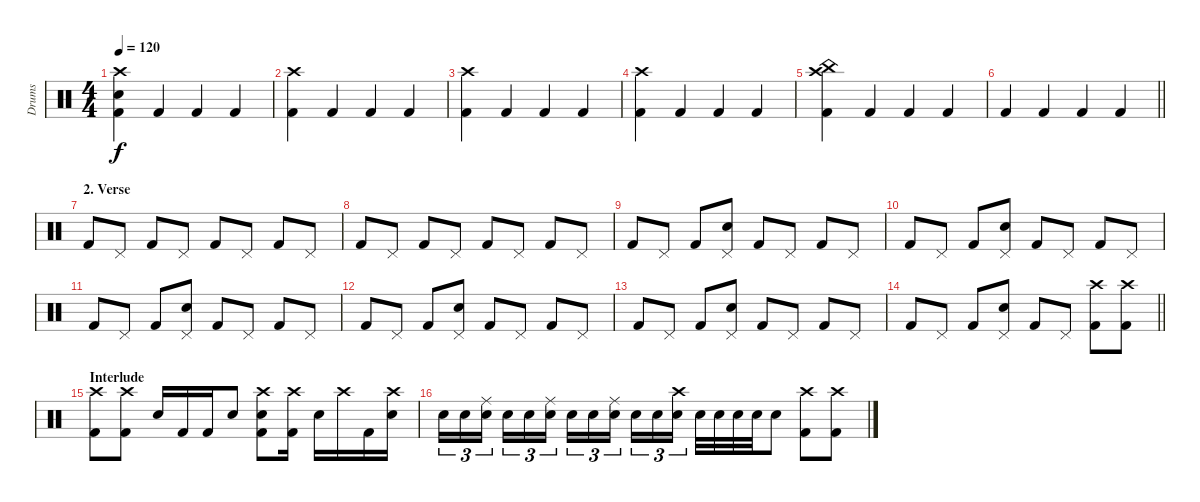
\track ("Drums" "Drums") {instrument percussion}
\staff {score}
\articulation defaults
\ts (4 4)
\tempo 120
\clef neutral
\ks c
("Crash high (hit)" "Snare (hit) 2" "Kick (hit) 2").4{dy f} "Kick (hit) 2".4 "Kick (hit) 2".4 "Kick (hit) 2".4 |
("Crash high (hit)" "Kick (hit) 2").4 "Kick (hit) 2".4 "Kick (hit) 2".4 "Kick (hit) 2".4 |
("Crash high (hit)" "Kick (hit) 2").4 "Kick (hit) 2".4 "Kick (hit) 2".4 "Kick (hit) 2".4 |
("Crash high (hit)" "Kick (hit) 2").4 "Kick (hit) 2".4 "Kick (hit) 2".4 "Kick (hit) 2".4 |
("Crash high (hit)" "China (hit)" "Kick (hit) 2").4 "Kick (hit) 2".4 "Kick (hit) 2".4 "Kick (hit) 2".4 |
\barLineRight lightlight "Kick (hit) 2".4 "Kick (hit) 2".4 "Kick (hit) 2".4 "Kick (hit) 2".4
|
\section ("" "2. Verse")
"Kick (hit) 2".8 "Pedal Hi-Hat (hit)".8 "Kick (hit) 2".8 "Pedal Hi-Hat (hit)".8 "Kick (hit) 2".8 "Pedal Hi-Hat (hit)".8 "Kick (hit) 2".8 "Pedal Hi-Hat (hit)".8 |
"Kick (hit) 2".8 "Pedal Hi-Hat (hit)".8 "Kick (hit) 2".8 "Pedal Hi-Hat (hit)".8 "Kick (hit) 2".8 "Pedal Hi-Hat (hit)".8 "Kick (hit) 2".8 "Pedal Hi-Hat (hit)".8 |
"Kick (hit) 2".8 "Pedal Hi-Hat (hit)".8 "Kick (hit) 2".8 ("Pedal Hi-Hat (hit)" "Snare (hit) 2").8 "Kick (hit) 2".8 "Pedal Hi-Hat (hit)".8 "Kick (hit) 2".8 "Pedal Hi-Hat (hit)".8 |
"Kick (hit) 2".8 "Pedal Hi-Hat (hit)".8 "Kick (hit) 2".8 ("Pedal Hi-Hat (hit)" "Snare (hit) 2").8 "Kick (hit) 2".8 "Pedal Hi-Hat (hit)".8 "Kick (hit) 2".8 "Pedal Hi-Hat (hit)".8 |
"Kick (hit) 2".8 "Pedal Hi-Hat (hit)".8 "Kick (hit) 2".8 ("Pedal Hi-Hat (hit)" "Snare (hit) 2").8 "Kick (hit) 2".8 "Pedal Hi-Hat (hit)".8 "Kick (hit) 2".8 "Pedal Hi-Hat (hit)".8 |
"Kick (hit) 2".8 "Pedal Hi-Hat (hit)".8 "Kick (hit) 2".8 ("Pedal Hi-Hat (hit)" "Snare (hit) 2").8 "Kick (hit) 2".8 "Pedal Hi-Hat (hit)".8 "Kick (hit) 2".8 "Pedal Hi-Hat (hit)".8 |
"Kick (hit) 2".8 "Pedal Hi-Hat (hit)".8 "Kick (hit) 2".8 ("Pedal Hi-Hat (hit)" "Snare (hit) 2").8 "Kick (hit) 2".8 "Pedal Hi-Hat (hit)".8 "Kick (hit) 2".8 "Pedal Hi-Hat (hit)".8 |
\barLineRight lightlight "Kick (hit) 2".8 "Pedal Hi-Hat (hit)".8 "Kick (hit) 2".8
("Pedal Hi-Hat (hit)" "Snare (hit) 2").8 "Kick (hit) 2".8 "Pedal Hi-Hat (hit)".8 ("Crash high (hit)" "Kick (hit) 2").8 ("Crash high (hit)" "Kick (hit) 2").8 |
\section ("" "Interlude")
("Crash high (hit)" "Kick (hit) 2").8 ("Crash high (hit)" "Kick (hit) 2").8 "Snare (hit) 2".16 "Kick (hit) 2".16 "Kick (hit) 2".16 "Snare (hit) 2".8 ("Crash high (hit)" "Snare (hit) 2" "Kick (hit) 2").8 ("Crash high (hit)" "Kick (hit) 2").16 "Snare (hit) 2".16 "Crash high (hit)".16 "Kick (hit) 2".16 ("Crash high (hit)" "Snare (hit) 2").16 |
"Snare (hit) 2".16{tu (3 2)} "Snare (hit) 2".16{tu (3 2)} ("Ride (middle)" "Snare (hit) 2").16{tu (3 2) beam splitsecondary} "Snare (hit) 2".16{tu (3 2)} "Snare (hit) 2".16{tu (3 2)} ("Ride (middle)" "Snare (hit) 2").16{tu (3 2)} "Snare (hit) 2".16{tu (3 2)} "Snare (hit) 2".16{tu (3 2)} ("Ride (middle)" "Snare (hit) 2").16{tu (3 2) beam splitsecondary} "Snare (hit) 2".16{tu (3 2)} "Snare (hit) 2".16{tu (3 2)} ("Crash high (hit)" "Snare (hit) 2").16{tu (3 2)} "Snare (hit) 2".32 "Snare (hit) 2".32 "Snare (hit) 2".32 "Snare (hit) 2".32 "Snare (hit) 2".8 ("Crash high (hit)" "Kick (hit) 2").8 ("Crash high (hit)" "Kick (hit) 2").8
